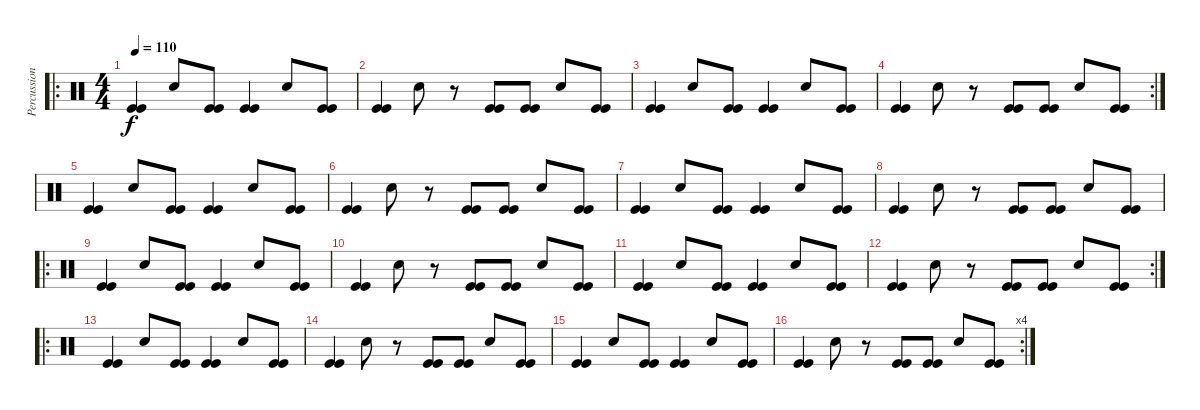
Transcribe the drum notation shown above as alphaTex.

\track ("Percussion" "Percussion") {instrument percussion}
\staff {score}
\articulation defaults
\ro
\ts (4 4)
\tempo 110
\clef neutral
\ks c
("Kick (hit)" "Kick (hit)").4{dy f} "Electric Snare (hit)".8 ("Kick (hit)" "Kick (hit)").8 ("Kick (hit)" "Kick (hit)").4 "Electric Snare (hit)".8 ("Kick (hit)" "Kick (hit)").8 |
("Kick (hit)" "Kick (hit)").4 "Electric Snare (hit)".8 r.8 ("Kick (hit)" "Kick (hit)").8 ("Kick (hit)" "Kick (hit)").8 "Electric Snare (hit)".8 ("Kick (hit)" "Kick (hit)").8 |
("Kick (hit)" "Kick (hit)").4 "Electric Snare (hit)".8 ("Kick (hit)" "Kick (hit)").8 ("Kick (hit)" "Kick (hit)").4 "Electric Snare (hit)".8 ("Kick (hit)" "Kick (hit)").8 |
\rc 2
("Kick (hit)" "Kick (hit)").4 "Electric Snare (hit)".8 r.8 ("Kick (hit)" "Kick (hit)").8 ("Kick (hit)" "Kick (hit)").8 "Electric Snare (hit)".8 ("Kick (hit)" "Kick (hit)").8 |
("Kick (hit)" "Kick (hit)").4 "Electric Snare (hit)".8 ("Kick (hit)" "Kick (hit)").8 ("Kick (hit)" "Kick (hit)").4 "Electric Snare (hit)".8 ("Kick (hit)" "Kick (hit)").8 |
("Kick (hit)" "Kick (hit)").4 "Electric Snare (hit)".8 r.8 ("Kick (hit)" "Kick (hit)").8 ("Kick (hit)" "Kick (hit)").8 "Electric Snare (hit)".8 ("Kick (hit)" "Kick (hit)").8 |
("Kick (hit)" "Kick (hit)").4 "Electric Snare (hit)".8 ("Kick (hit)" "Kick (hit)").8 ("Kick (hit)" "Kick (hit)").4 "Electric Snare (hit)".8 ("Kick (hit)" "Kick (hit)").8 |
("Kick (hit)" "Kick (hit)").4 "Electric Snare (hit)".8 r.8 ("Kick (hit)" "Kick (hit)").8 ("Kick (hit)" "Kick (hit)").8 "Electric Snare (hit)".8 ("Kick (hit)" "Kick (hit)").8 |
\ro
("Kick (hit)" "Kick (hit)").4 "Electric Snare (hit)".8 ("Kick (hit)" "Kick (hit)").8 ("Kick (hit)" "Kick (hit)").4 "Electric Snare (hit)".8 ("Kick (hit)" "Kick (hit)").8 |
("Kick (hit)" "Kick (hit)").4 "Electric Snare (hit)".8 r.8 ("Kick (hit)" "Kick (hit)").8 ("Kick (hit)" "Kick (hit)").8 "Electric Snare (hit)".8 ("Kick (hit)" "Kick (hit)").8 |
("Kick (hit)" "Kick (hit)").4 "Electric Snare (hit)".8 ("Kick (hit)" "Kick (hit)").8 ("Kick (hit)" "Kick (hit)").4 "Electric Snare (hit)".8 ("Kick (hit)" "Kick (hit)").8 |
\rc 2
("Kick (hit)" "Kick (hit)").4 "Electric Snare (hit)".8 r.8 ("Kick (hit)" "Kick (hit)").8 ("Kick (hit)" "Kick (hit)").8 "Electric Snare (hit)".8 ("Kick (hit)" "Kick (hit)").8 |
\ro
("Kick (hit)" "Kick (hit)").4 "Electric Snare (hit)".8 ("Kick (hit)" "Kick (hit)").8 ("Kick (hit)" "Kick (hit)").4 "Electric Snare (hit)".8 ("Kick (hit)" "Kick (hit)").8 |
("Kick (hit)" "Kick (hit)").4 "Electric Snare (hit)".8 r.8 ("Kick (hit)" "Kick (hit)").8 ("Kick (hit)" "Kick (hit)").8 "Electric Snare (hit)".8 ("Kick (hit)" "Kick (hit)").8 |
("Kick (hit)" "Kick (hit)").4 "Electric Snare (hit)".8 ("Kick (hit)" "Kick (hit)").8 ("Kick (hit)" "Kick (hit)").4 "Electric Snare (hit)".8 ("Kick (hit)" "Kick (hit)").8 |
\rc 4
("Kick (hit)" "Kick (hit)").4 "Electric Snare (hit)".8 r.8 ("Kick (hit)" "Kick (hit)").8 ("Kick (hit)" "Kick (hit)").8 "Electric Snare (hit)".8 ("Kick (hit)" "Kick (hit)").8
